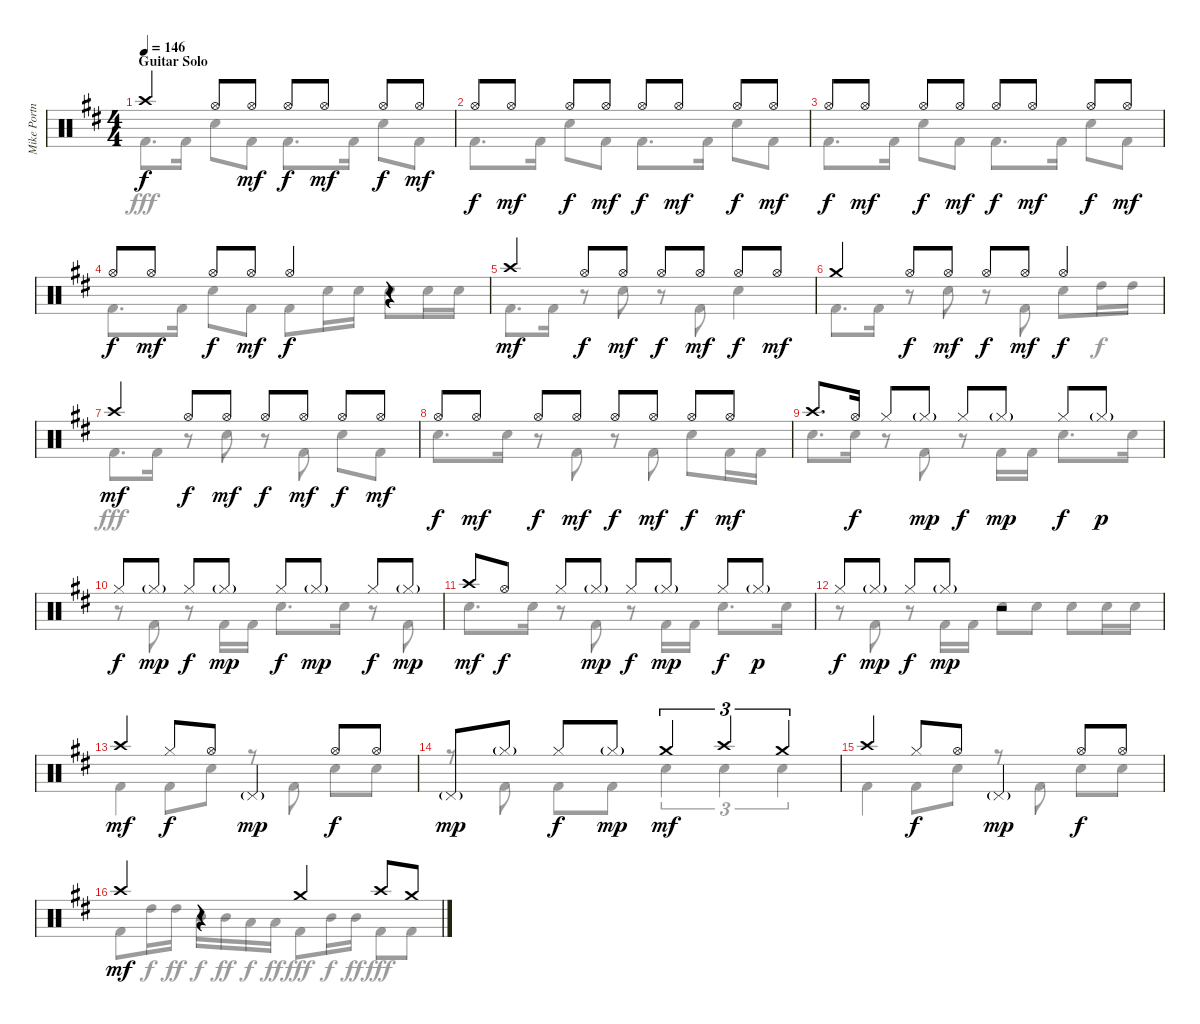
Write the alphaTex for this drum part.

\track ("Mike Portnoy Drums" "Mike Portn") {instrument percussion}
\staff {score}
\articulation defaults
\voice
\ts (4 4)
\section ("" "Guitar Solo")
\tempo 146
\clef neutral
\ks bminor "Crash high (hit)".4{dy f} "Hi-Hat (open)".8 "Hi-Hat (open)".8{dy mf} "Hi-Hat (open)".8{dy f} "Hi-Hat (open)".8{dy mf} "Hi-Hat (open)".8{dy f} "Hi-Hat (open)".8{dy mf}
|
"Hi-Hat (open)".8{dy f} "Hi-Hat (open)".8{dy mf} "Hi-Hat (open)".8{dy f} "Hi-Hat (open)".8{dy mf} "Hi-Hat (open)".8{dy f} "Hi-Hat (open)".8{dy mf} "Hi-Hat (open)".8{dy f} "Hi-Hat (open)".8{dy mf} |
"Hi-Hat (open)".8{dy f} "Hi-Hat (open)".8{dy mf} "Hi-Hat (open)".8{dy f} "Hi-Hat (open)".8{dy mf} "Hi-Hat (open)".8{dy f} "Hi-Hat (open)".8{dy mf} "Hi-Hat (open)".8{dy f} "Hi-Hat (open)".8{dy mf} |
"Hi-Hat (open)".8{dy f} "Hi-Hat (open)".8{dy mf} "Hi-Hat (open)".8{dy f} "Hi-Hat (open)".8{dy mf} "Hi-Hat (open)".4{dy f} r.4 |
"Crash high (hit)".4{dy mf} "Hi-Hat (open)".8{dy f} "Hi-Hat (open)".8{dy mf} "Hi-Hat (open)".8{dy f} "Hi-Hat (open)".8{dy mf} "Hi-Hat (open)".8{dy f} "Hi-Hat (open)".8{dy mf} |
"Crash medium (hit)".4 "Hi-Hat (open)".8{dy f} "Hi-Hat (open)".8{dy mf} "Hi-Hat (open)".8{dy f} "Hi-Hat (open)".8{dy mf} "Hi-Hat (open)".4{dy f} |
"Crash high (hit)".4{dy mf} "Hi-Hat (open)".8{dy f} "Hi-Hat (open)".8{dy mf} "Hi-Hat (open)".8{dy f} "Hi-Hat (open)".8{dy mf} "Hi-Hat (open)".8{dy f} "Hi-Hat (open)".8{dy mf} |
"Hi-Hat (open)".8{dy f} "Hi-Hat (open)".8{dy mf} "Hi-Hat (open)".8{dy f} "Hi-Hat (open)".8{dy mf} "Hi-Hat (open)".8{dy f} "Hi-Hat (open)".8{dy mf} "Hi-Hat (open)".8{dy f} "Hi-Hat (open)".8{dy mf} |
"Crash high (hit)".8{d} "Hi-Hat (open)".16{dy f} "Hi-Hat (closed)".8 "Hi-Hat (closed)"{g}.8{dy mp} "Hi-Hat (closed)".8{dy f} "Hi-Hat (closed)"{g}.8{dy mp} "Hi-Hat (closed)".8{dy f} "Hi-Hat (closed)"{g}.8{dy p} |
"Hi-Hat (closed)".8{dy f} "Hi-Hat (closed)"{g}.8{dy mp} "Hi-Hat (closed)".8{dy f} "Hi-Hat (closed)"{g}.8{dy mp} "Hi-Hat (closed)".8{dy f} "Hi-Hat (closed)"{g}.8{dy mp} "Hi-Hat (closed)".8{dy f} "Hi-Hat (closed)"{g}.8{dy mp} |
"Crash high (hit)".8{dy mf} "Hi-Hat (open)".8{dy f} "Hi-Hat (closed)".8 "Hi-Hat (closed)"{g}.8{dy mp} "Hi-Hat (closed)".8{dy f} "Hi-Hat (closed)"{g}.8{dy mp} "Hi-Hat (closed)".8{dy f} "Hi-Hat (closed)"{g}.8{dy p} |
"Hi-Hat (closed)".8{dy f} "Hi-Hat (closed)"{g}.8{dy mp} "Hi-Hat (closed)".8{dy f} "Hi-Hat (closed)"{g}.8{dy mp} r.2 |
"Crash high (hit)".4{dy mf} "Hi-Hat (closed)".8{dy f} "Hi-Hat (open)".8 "Pedal Hi-Hat (hit)"{g}.4{dy mp} "Hi-Hat (open)".8{dy f} "Hi-Hat (open)".8 |
"Pedal Hi-Hat (hit)"{g}.8{dy mp} "Hi-Hat (closed)"{g}.8 "Hi-Hat (closed)".8{dy f} "Hi-Hat (closed)"{g}.8{dy mp} "Crash medium (hit)".4{tu (3 2) dy mf} "Crash high (hit)".4{tu (3 2)} "Crash medium (hit)".4{tu (3 2)} |
"Crash high (hit)".4 "Hi-Hat (closed)".8{dy f} "Hi-Hat (open)".8 "Pedal Hi-Hat (hit)"{g}.4{dy mp} "Hi-Hat (open)".8{dy f} "Hi-Hat (open)".8 |
"Crash high (hit)".4{dy mf} r.4 "Crash medium (hit)".4 "Crash high (hit)".8 "Crash medium (hit)".8
\voice
\clef neutral
\ottava regular
\simile none
\ks bminor "Kick (hit) 2".8{d dy fff} "Kick (hit) 2".16 "Snare (hit) 2".8 "Kick (hit) 2".8 "Kick (hit) 2".8{d} "Kick (hit) 2".16 "Snare (hit) 2".8 "Kick (hit) 2".8
|
"Kick (hit) 2".8{d} "Kick (hit) 2".16 "Snare (hit) 2".8 "Kick (hit) 2".8 "Kick (hit) 2".8{d} "Kick (hit) 2".16 "Snare (hit) 2".8 "Kick (hit) 2".8 |
"Kick (hit) 2".8{d} "Kick (hit) 2".16 "Snare (hit) 2".8 "Kick (hit) 2".8 "Kick (hit) 2".8{d} "Kick (hit) 2".16 "Snare (hit) 2".8 "Kick (hit) 2".8 |
"Kick (hit) 2".8{d} "Kick (hit) 2".16 "Snare (hit) 2".8 "Kick (hit) 2".8 "Kick (hit) 2".8 "Snare (hit) 2".16 "Snare (hit) 2".16 "Snare (hit) 2".8 "Snare (hit) 2".16 "Snare (hit) 2".16 |
"Kick (hit) 2".8{d} "Kick (hit) 2".16 r.8 "Snare (hit) 2".8 r.8 "Kick (hit) 2".8 "Snare (hit) 2".4 |
"Kick (hit) 2".8{d} "Kick (hit) 2".16 r.8 "Snare (hit) 2".8 r.8 "Kick (hit) 2".8 "Snare (hit) 2".8 "High Tom (hit)".16{dy f} "High Tom (hit)".16 |
"Kick (hit) 2".8{d dy fff} "Kick (hit) 2".16 r.8 "Snare (hit) 2".8 r.8 "Kick (hit) 2".8 "Snare (hit) 2".8 "Kick (hit) 2".8 |
"Snare (hit) 2".8{d} "Snare (hit) 2".16 r.8 "Kick (hit) 2".8 r.8 "Kick (hit) 2".8 "Snare (hit) 2".8 "Kick (hit) 2".16 "Kick (hit) 2".16 |
"Snare (hit) 2".8{d} "Snare (hit) 2".16 r.8 "Kick (hit) 2".8 r.8 "Kick (hit) 2".16 "Kick (hit) 2".16 "Snare (hit) 2".8{d} "Snare (hit) 2".16 |
r.8 "Kick (hit) 2".8 r.8 "Kick (hit) 2".16 "Kick (hit) 2".16 "Snare (hit) 2".8{d} "Snare (hit) 2".16 r.8 "Kick (hit) 2".8 |
"Snare (hit) 2".8{d} "Snare (hit) 2".16 r.8 "Kick (hit) 2".8 r.8 "Kick (hit) 2".16 "Kick (hit) 2".16 "Snare (hit) 2".8{d} "Snare (hit) 2".16 |
r.8 "Kick (hit) 2".8 r.8 "Kick (hit) 2".16 "Kick (hit) 2".16 "Snare (hit) 2".8 "Snare (hit) 2".8 "Snare (hit) 2".8 "Snare (hit) 2".16 "Snare (hit) 2".16 |
"Kick (hit) 2".4 "Kick (hit) 2".8 "Snare (hit) 2".8 r.8 "Kick (hit) 2".8 "Snare (hit) 2".8 "Snare (hit) 2".8 |
r.8 "Kick (hit) 2".8 "Kick (hit) 2".8 "Kick (hit) 2".8 "Snare (hit) 2".4{tu (3 2)} "Snare (hit) 2".4{tu (3 2)} "Snare (hit) 2".4{tu (3 2)} |
"Kick (hit) 2".4 "Kick (hit) 2".8 "Snare (hit) 2".8 r.8 "Kick (hit) 2".8 "Snare (hit) 2".8 "Snare (hit) 2".8 |
"Kick (hit) 2".8 "High Tom (hit)".16{dy f} "High Tom (hit)".16{dy ff} "Mid Tom (hit)".16{dy f} "Mid Tom (hit)".16{dy ff} "Low Tom (hit)".16{dy f} "Low Tom (hit)".16{dy ff} "Kick (hit) 2".8{dy fff} "Mid Tom (hit)".16{dy f} "Mid Tom (hit)".16{dy ff} "Kick (hit) 2".8{dy fff} "Kick (hit) 2".8
